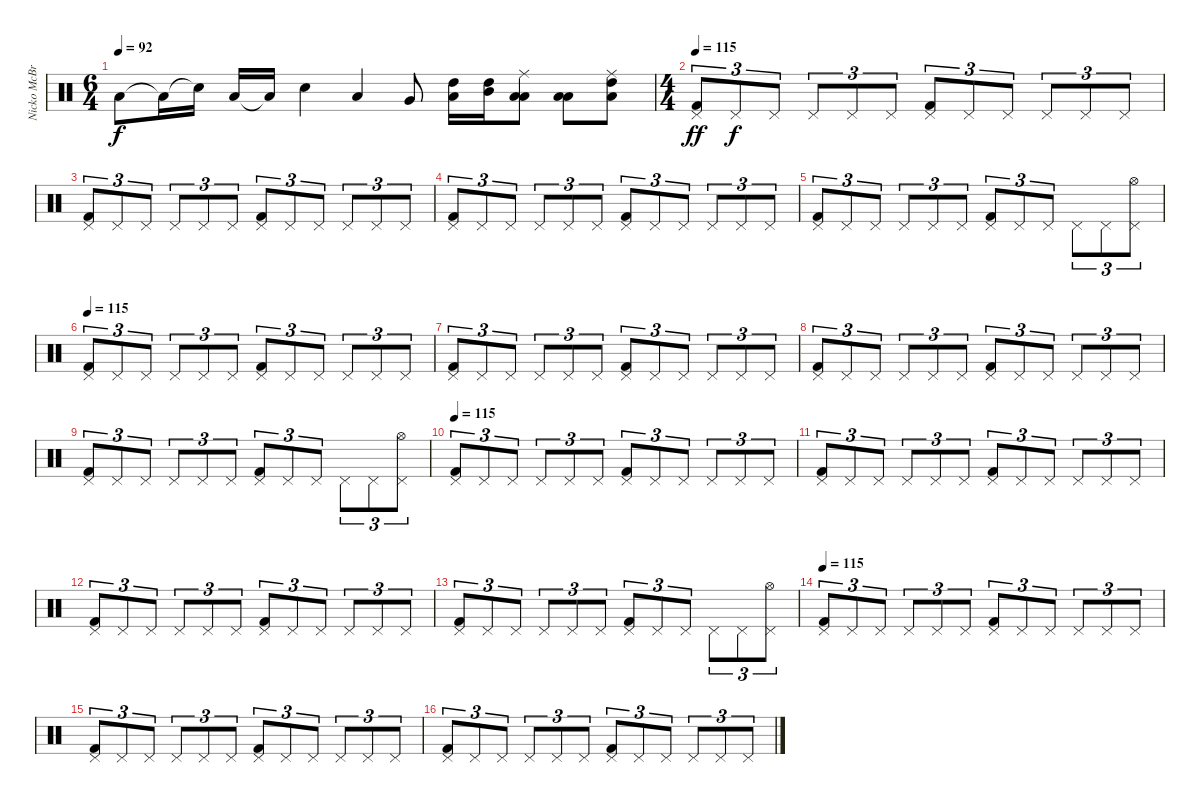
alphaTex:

\track ("Nicko McBrain" "Nicko McBr") {instrument percussion}
\staff {score}
\articulation defaults
\ts (6 4)
\tempo 92
\clef neutral
\ks c "Low Floor Tom (hit)".8{dy f} "Low Floor Tom (hit)"{t}.16 "Electric Snare (hit)"{t}.16 "Low Floor Tom (hit)".16 "Low Floor Tom (hit)"{t}.16 "Electric Snare (hit)".4 "Low Floor Tom (hit)".4 "Very Low Tom (hit)".8
("High Tom (hit)" "Low Floor Tom (hit)").16 ("High Tom (hit)" "Mid Tom (hit)").16 ("Low Tom (hit)" "Low Tom (hit)" "Ride (middle)").8 ("Low Floor Tom (hit)" "Low Tom (hit)").8 ("High Tom (hit)" "Low Tom (hit)" "Ride (middle)").8 |
\ts (4 4)
\tempo 115
("Pedal Hi-Hat (hit)" "Kick (hit) 2").8{tu (3 2) dy ff volume 5} "Pedal Hi-Hat (hit)".8{tu (3 2) dy f} "Pedal Hi-Hat (hit)".8{tu (3 2)} "Pedal Hi-Hat (hit)".8{tu (3 2)} "Pedal Hi-Hat (hit)".8{tu (3 2)} "Pedal Hi-Hat (hit)".8{tu (3 2)} ("Pedal Hi-Hat (hit)" "Kick (hit) 2").8{tu (3 2)} "Pedal Hi-Hat (hit)".8{tu (3 2)} "Pedal Hi-Hat (hit)".8{tu (3 2)} "Pedal Hi-Hat (hit)".8{tu (3 2)} "Pedal Hi-Hat (hit)".8{tu (3 2)} "Pedal Hi-Hat (hit)".8{tu (3 2)} |
("Pedal Hi-Hat (hit)" "Kick (hit) 2").8{tu (3 2) volume 6} "Pedal Hi-Hat (hit)".8{tu (3 2)} "Pedal Hi-Hat (hit)".8{tu (3 2)} "Pedal Hi-Hat (hit)".8{tu (3 2)} "Pedal Hi-Hat (hit)".8{tu (3 2)} "Pedal Hi-Hat (hit)".8{tu (3 2)} ("Pedal Hi-Hat (hit)" "Kick (hit) 2").8{tu (3 2)} "Pedal Hi-Hat (hit)".8{tu (3 2)} "Pedal Hi-Hat (hit)".8{tu (3 2)} "Pedal Hi-Hat (hit)".8{tu (3 2)} "Pedal Hi-Hat (hit)".8{tu (3 2)} "Pedal Hi-Hat (hit)".8{tu (3 2)} |
("Pedal Hi-Hat (hit)" "Kick (hit) 2").8{tu (3 2) volume 7} "Pedal Hi-Hat (hit)".8{tu (3 2)} "Pedal Hi-Hat (hit)".8{tu (3 2)} "Pedal Hi-Hat (hit)".8{tu (3 2)} "Pedal Hi-Hat (hit)".8{tu (3 2)} "Pedal Hi-Hat (hit)".8{tu (3 2)} ("Pedal Hi-Hat (hit)" "Kick (hit) 2").8{tu (3 2)} "Pedal Hi-Hat (hit)".8{tu (3 2)} "Pedal Hi-Hat (hit)".8{tu (3 2)} "Pedal Hi-Hat (hit)".8{tu (3 2)} "Pedal Hi-Hat (hit)".8{tu (3 2)} "Pedal Hi-Hat (hit)".8{tu (3 2)} |
("Pedal Hi-Hat (hit)" "Kick (hit) 2").8{tu (3 2)} "Pedal Hi-Hat (hit)".8{tu (3 2)} "Pedal Hi-Hat (hit)".8{tu (3 2)} "Pedal Hi-Hat (hit)".8{tu (3 2)} "Pedal Hi-Hat (hit)".8{tu (3 2)} "Pedal Hi-Hat (hit)".8{tu (3 2)} ("Pedal Hi-Hat (hit)" "Kick (hit) 2").8{tu (3 2)} "Pedal Hi-Hat (hit)".8{tu (3 2)} "Pedal Hi-Hat (hit)".8{tu (3 2)} "Pedal Hi-Hat (hit)".8{tu (3 2)} "Pedal Hi-Hat (hit)".8{tu (3 2)} ("Pedal Hi-Hat (hit)" "Hi-Hat (open)").8{tu (3 2)} |
\tempo 115
("Pedal Hi-Hat (hit)" "Kick (hit) 2").8{tu (3 2) volume 8} "Pedal Hi-Hat (hit)".8{tu (3 2)} "Pedal Hi-Hat (hit)".8{tu (3 2)} "Pedal Hi-Hat (hit)".8{tu (3 2)} "Pedal Hi-Hat (hit)".8{tu (3 2)} "Pedal Hi-Hat (hit)".8{tu (3 2)} ("Pedal Hi-Hat (hit)" "Kick (hit) 2").8{tu (3 2)} "Pedal Hi-Hat (hit)".8{tu (3 2)} "Pedal Hi-Hat (hit)".8{tu (3 2)} "Pedal Hi-Hat (hit)".8{tu (3 2)} "Pedal Hi-Hat (hit)".8{tu (3 2)} "Pedal Hi-Hat (hit)".8{tu (3 2)} |
("Pedal Hi-Hat (hit)" "Kick (hit) 2").8{tu (3 2)} "Pedal Hi-Hat (hit)".8{tu (3 2)} "Pedal Hi-Hat (hit)".8{tu (3 2)} "Pedal Hi-Hat (hit)".8{tu (3 2)} "Pedal Hi-Hat (hit)".8{tu (3 2)} "Pedal Hi-Hat (hit)".8{tu (3 2)} ("Pedal Hi-Hat (hit)" "Kick (hit) 2").8{tu (3 2)} "Pedal Hi-Hat (hit)".8{tu (3 2)} "Pedal Hi-Hat (hit)".8{tu (3 2)} "Pedal Hi-Hat (hit)".8{tu (3 2)} "Pedal Hi-Hat (hit)".8{tu (3 2)} "Pedal Hi-Hat (hit)".8{tu (3 2)} |
("Pedal Hi-Hat (hit)" "Kick (hit) 2").8{tu (3 2)} "Pedal Hi-Hat (hit)".8{tu (3 2)} "Pedal Hi-Hat (hit)".8{tu (3 2)} "Pedal Hi-Hat (hit)".8{tu (3 2)} "Pedal Hi-Hat (hit)".8{tu (3 2)} "Pedal Hi-Hat (hit)".8{tu (3 2)} ("Pedal Hi-Hat (hit)" "Kick (hit) 2").8{tu (3 2)} "Pedal Hi-Hat (hit)".8{tu (3 2)} "Pedal Hi-Hat (hit)".8{tu (3 2)} "Pedal Hi-Hat (hit)".8{tu (3 2)} "Pedal Hi-Hat (hit)".8{tu (3 2)} "Pedal Hi-Hat (hit)".8{tu (3 2)} |
("Pedal Hi-Hat (hit)" "Kick (hit) 2").8{tu (3 2)} "Pedal Hi-Hat (hit)".8{tu (3 2)} "Pedal Hi-Hat (hit)".8{tu (3 2)} "Pedal Hi-Hat (hit)".8{tu (3 2)} "Pedal Hi-Hat (hit)".8{tu (3 2)} "Pedal Hi-Hat (hit)".8{tu (3 2)} ("Pedal Hi-Hat (hit)" "Kick (hit) 2").8{tu (3 2)} "Pedal Hi-Hat (hit)".8{tu (3 2)} "Pedal Hi-Hat (hit)".8{tu (3 2)} "Pedal Hi-Hat (hit)".8{tu (3 2)} "Pedal Hi-Hat (hit)".8{tu (3 2)} ("Pedal Hi-Hat (hit)" "Hi-Hat (open)").8{tu (3 2)} |
\tempo 115
("Pedal Hi-Hat (hit)" "Kick (hit) 2").8{tu (3 2)} "Pedal Hi-Hat (hit)".8{tu (3 2)} "Pedal Hi-Hat (hit)".8{tu (3 2)} "Pedal Hi-Hat (hit)".8{tu (3 2)} "Pedal Hi-Hat (hit)".8{tu (3 2)} "Pedal Hi-Hat (hit)".8{tu (3 2)} ("Pedal Hi-Hat (hit)" "Kick (hit) 2").8{tu (3 2)} "Pedal Hi-Hat (hit)".8{tu (3 2)} "Pedal Hi-Hat (hit)".8{tu (3 2)} "Pedal Hi-Hat (hit)".8{tu (3 2)} "Pedal Hi-Hat (hit)".8{tu (3 2)} "Pedal Hi-Hat (hit)".8{tu (3 2)} |
("Pedal Hi-Hat (hit)" "Kick (hit) 2").8{tu (3 2)} "Pedal Hi-Hat (hit)".8{tu (3 2)} "Pedal Hi-Hat (hit)".8{tu (3 2)} "Pedal Hi-Hat (hit)".8{tu (3 2)} "Pedal Hi-Hat (hit)".8{tu (3 2)} "Pedal Hi-Hat (hit)".8{tu (3 2)} ("Pedal Hi-Hat (hit)" "Kick (hit) 2").8{tu (3 2)} "Pedal Hi-Hat (hit)".8{tu (3 2)} "Pedal Hi-Hat (hit)".8{tu (3 2)} "Pedal Hi-Hat (hit)".8{tu (3 2)} "Pedal Hi-Hat (hit)".8{tu (3 2)} "Pedal Hi-Hat (hit)".8{tu (3 2)} |
("Pedal Hi-Hat (hit)" "Kick (hit) 2").8{tu (3 2)} "Pedal Hi-Hat (hit)".8{tu (3 2)} "Pedal Hi-Hat (hit)".8{tu (3 2)} "Pedal Hi-Hat (hit)".8{tu (3 2)} "Pedal Hi-Hat (hit)".8{tu (3 2)} "Pedal Hi-Hat (hit)".8{tu (3 2)} ("Pedal Hi-Hat (hit)" "Kick (hit) 2").8{tu (3 2)} "Pedal Hi-Hat (hit)".8{tu (3 2)} "Pedal Hi-Hat (hit)".8{tu (3 2)} "Pedal Hi-Hat (hit)".8{tu (3 2)} "Pedal Hi-Hat (hit)".8{tu (3 2)} "Pedal Hi-Hat (hit)".8{tu (3 2)} |
("Pedal Hi-Hat (hit)" "Kick (hit) 2").8{tu (3 2)} "Pedal Hi-Hat (hit)".8{tu (3 2)} "Pedal Hi-Hat (hit)".8{tu (3 2)} "Pedal Hi-Hat (hit)".8{tu (3 2)} "Pedal Hi-Hat (hit)".8{tu (3 2)} "Pedal Hi-Hat (hit)".8{tu (3 2)} ("Pedal Hi-Hat (hit)" "Kick (hit) 2").8{tu (3 2)} "Pedal Hi-Hat (hit)".8{tu (3 2)} "Pedal Hi-Hat (hit)".8{tu (3 2)} "Pedal Hi-Hat (hit)".8{tu (3 2)} "Pedal Hi-Hat (hit)".8{tu (3 2)} ("Pedal Hi-Hat (hit)" "Hi-Hat (open)").8{tu (3 2)} |
\tempo 115
("Pedal Hi-Hat (hit)" "Kick (hit) 2").8{tu (3 2)} "Pedal Hi-Hat (hit)".8{tu (3 2)} "Pedal Hi-Hat (hit)".8{tu (3 2)} "Pedal Hi-Hat (hit)".8{tu (3 2)} "Pedal Hi-Hat (hit)".8{tu (3 2)} "Pedal Hi-Hat (hit)".8{tu (3 2)} ("Pedal Hi-Hat (hit)" "Kick (hit) 2").8{tu (3 2)} "Pedal Hi-Hat (hit)".8{tu (3 2)} "Pedal Hi-Hat (hit)".8{tu (3 2)} "Pedal Hi-Hat (hit)".8{tu (3 2)} "Pedal Hi-Hat (hit)".8{tu (3 2)} "Pedal Hi-Hat (hit)".8{tu (3 2)} |
("Pedal Hi-Hat (hit)" "Kick (hit) 2").8{tu (3 2)} "Pedal Hi-Hat (hit)".8{tu (3 2)} "Pedal Hi-Hat (hit)".8{tu (3 2)} "Pedal Hi-Hat (hit)".8{tu (3 2)} "Pedal Hi-Hat (hit)".8{tu (3 2)} "Pedal Hi-Hat (hit)".8{tu (3 2)} ("Pedal Hi-Hat (hit)" "Kick (hit) 2").8{tu (3 2)} "Pedal Hi-Hat (hit)".8{tu (3 2)} "Pedal Hi-Hat (hit)".8{tu (3 2)} "Pedal Hi-Hat (hit)".8{tu (3 2)} "Pedal Hi-Hat (hit)".8{tu (3 2)} "Pedal Hi-Hat (hit)".8{tu (3 2)} |
("Pedal Hi-Hat (hit)" "Kick (hit) 2").8{tu (3 2)} "Pedal Hi-Hat (hit)".8{tu (3 2)} "Pedal Hi-Hat (hit)".8{tu (3 2)} "Pedal Hi-Hat (hit)".8{tu (3 2)} "Pedal Hi-Hat (hit)".8{tu (3 2)} "Pedal Hi-Hat (hit)".8{tu (3 2)} ("Pedal Hi-Hat (hit)" "Kick (hit) 2").8{tu (3 2)} "Pedal Hi-Hat (hit)".8{tu (3 2)} "Pedal Hi-Hat (hit)".8{tu (3 2)} "Pedal Hi-Hat (hit)".8{tu (3 2)} "Pedal Hi-Hat (hit)".8{tu (3 2)} "Pedal Hi-Hat (hit)".8{tu (3 2)}
